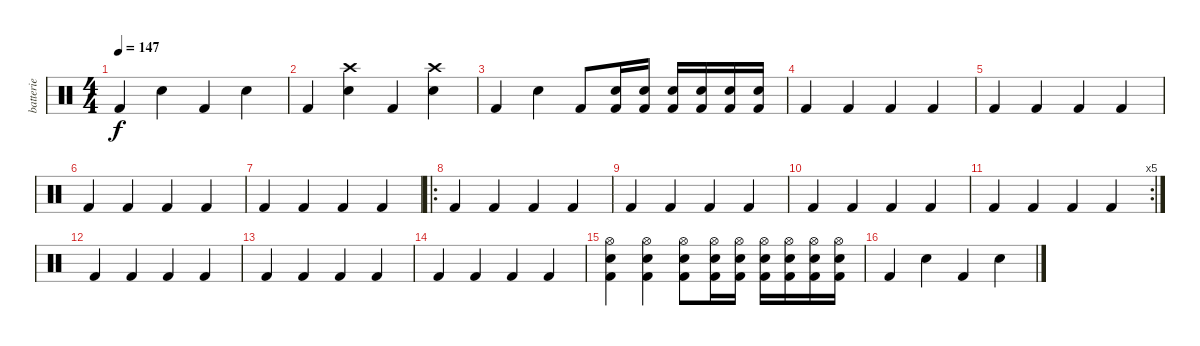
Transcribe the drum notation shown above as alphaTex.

\track ("batterie" "batterie") {instrument percussion}
\staff {score}
\articulation defaults
\ts (4 4)
\tempo 147
\clef neutral
\ks c "Kick (hit) 2".4{dy f} "Snare (hit) 2".4 "Kick (hit) 2".4 "Snare (hit) 2".4
|
"Kick (hit) 2".4 ("Snare (hit) 2" "Crash high (hit)").4 "Kick (hit) 2".4 ("Snare (hit) 2" "Crash high (hit)").4 |
"Kick (hit) 2".4 "Snare (hit) 2".4 "Kick (hit) 2".8 ("Snare (hit) 2" "Kick (hit) 2").16 ("Snare (hit) 2" "Kick (hit) 2").16 ("Snare (hit) 2" "Kick (hit) 2").16 ("Snare (hit) 2" "Kick (hit) 2").16 ("Snare (hit) 2" "Kick (hit) 2").16 ("Snare (hit) 2" "Kick (hit) 2").16 |
"Kick (hit) 2".4 "Kick (hit) 2".4 "Kick (hit) 2".4 "Kick (hit) 2".4 |
"Kick (hit) 2".4 "Kick (hit) 2".4 "Kick (hit) 2".4 "Kick (hit) 2".4 |
"Kick (hit) 2".4 "Kick (hit) 2".4 "Kick (hit) 2".4 "Kick (hit) 2".4 |
"Kick (hit) 2".4 "Kick (hit) 2".4 "Kick (hit) 2".4 "Kick (hit) 2".4 |
\ro "Kick (hit) 2".4 "Kick (hit) 2".4 "Kick (hit) 2".4 "Kick (hit) 2".4
|
"Kick (hit) 2".4 "Kick (hit) 2".4 "Kick (hit) 2".4 "Kick (hit) 2".4 |
"Kick (hit) 2".4 "Kick (hit) 2".4 "Kick (hit) 2".4 "Kick (hit) 2".4 |
\rc 5 "Kick (hit) 2".4 "Kick (hit) 2".4 "Kick (hit) 2".4 "Kick (hit) 2".4
|
"Kick (hit) 2".4 "Kick (hit) 2".4 "Kick (hit) 2".4 "Kick (hit) 2".4 |
"Kick (hit) 2".4 "Kick (hit) 2".4 "Kick (hit) 2".4 "Kick (hit) 2".4 |
"Kick (hit) 2".4 "Kick (hit) 2".4 "Kick (hit) 2".4 "Kick (hit) 2".4 |
("Snare (hit) 2" "Hi-Hat (open)" "Kick (hit) 2").4 ("Snare (hit) 2" "Hi-Hat (open)" "Kick (hit) 2").4 ("Snare (hit) 2" "Hi-Hat (open)" "Kick (hit) 2").8 ("Snare (hit) 2" "Hi-Hat (open)" "Kick (hit) 2").16 ("Snare (hit) 2" "Hi-Hat (open)" "Kick (hit) 2").16 ("Snare (hit) 2" "Hi-Hat (open)" "Kick (hit) 2").16 ("Snare (hit) 2" "Hi-Hat (open)" "Kick (hit) 2").16 ("Snare (hit) 2" "Hi-Hat (open)" "Kick (hit) 2").16 ("Snare (hit) 2" "Hi-Hat (open)" "Kick (hit) 2").16 |
"Kick (hit) 2".4 "Snare (hit) 2".4 "Kick (hit) 2".4 "Snare (hit) 2".4
